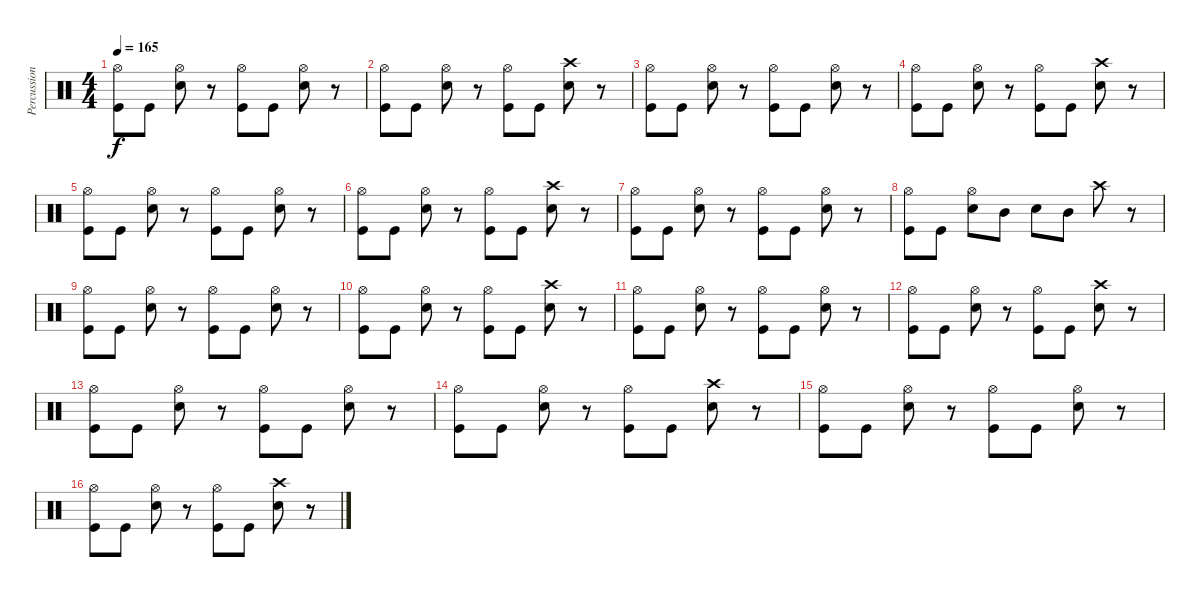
\track ("Percussion" "Percussion") {instrument percussion}
\staff {score}
\articulation defaults
\ts (4 4)
\tempo 165
\clef neutral
\ks c
("Hi-Hat (open)" "Kick (hit)").8{dy f} "Kick (hit)".8 ("Hi-Hat (open)" "Snare (hit) 2").8 r.8 ("Hi-Hat (open)" "Kick (hit)").8 "Kick (hit)".8 ("Hi-Hat (open)" "Snare (hit) 2").8 r.8 |
("Hi-Hat (open)" "Kick (hit)").8 "Kick (hit)".8 ("Hi-Hat (open)" "Snare (hit) 2").8 r.8 ("Hi-Hat (open)" "Kick (hit)").8 "Kick (hit)".8 ("Crash high (hit)" "Snare (hit) 2").8 r.8 |
("Hi-Hat (open)" "Kick (hit)").8 "Kick (hit)".8 ("Hi-Hat (open)" "Snare (hit) 2").8 r.8 ("Hi-Hat (open)" "Kick (hit)").8 "Kick (hit)".8 ("Hi-Hat (open)" "Snare (hit) 2").8 r.8 |
("Hi-Hat (open)" "Kick (hit)").8 "Kick (hit)".8 ("Hi-Hat (open)" "Snare (hit) 2").8 r.8 ("Hi-Hat (open)" "Kick (hit)").8 "Kick (hit)".8 ("Crash high (hit)" "Snare (hit) 2").8 r.8 |
("Hi-Hat (open)" "Kick (hit)").8 "Kick (hit)".8 ("Hi-Hat (open)" "Snare (hit) 2").8 r.8 ("Hi-Hat (open)" "Kick (hit)").8 "Kick (hit)".8 ("Hi-Hat (open)" "Snare (hit) 2").8 r.8 |
("Hi-Hat (open)" "Kick (hit)").8 "Kick (hit)".8 ("Hi-Hat (open)" "Snare (hit) 2").8 r.8 ("Hi-Hat (open)" "Kick (hit)").8 "Kick (hit)".8 ("Crash high (hit)" "Snare (hit) 2").8 r.8 |
("Hi-Hat (open)" "Kick (hit)").8 "Kick (hit)".8 ("Hi-Hat (open)" "Snare (hit) 2").8 r.8 ("Hi-Hat (open)" "Kick (hit)").8 "Kick (hit)".8 ("Hi-Hat (open)" "Snare (hit) 2").8 r.8 |
("Hi-Hat (open)" "Kick (hit)").8 "Kick (hit)".8 ("Hi-Hat (open)" "Snare (hit) 2").8 "Mid Tom (hit)".8 "Snare (hit) 2".8 "Mid Tom (hit)".8 "Crash high (hit)".8 r.8 |
("Hi-Hat (open)" "Kick (hit)").8 "Kick (hit)".8 ("Hi-Hat (open)" "Snare (hit) 2").8 r.8 ("Hi-Hat (open)" "Kick (hit)").8 "Kick (hit)".8 ("Hi-Hat (open)" "Snare (hit) 2").8 r.8 |
("Hi-Hat (open)" "Kick (hit)").8 "Kick (hit)".8 ("Hi-Hat (open)" "Snare (hit) 2").8 r.8 ("Hi-Hat (open)" "Kick (hit)").8 "Kick (hit)".8 ("Crash high (hit)" "Snare (hit) 2").8 r.8 |
("Hi-Hat (open)" "Kick (hit)").8 "Kick (hit)".8 ("Hi-Hat (open)" "Snare (hit) 2").8 r.8 ("Hi-Hat (open)" "Kick (hit)").8 "Kick (hit)".8 ("Hi-Hat (open)" "Snare (hit) 2").8 r.8 |
("Hi-Hat (open)" "Kick (hit)").8 "Kick (hit)".8 ("Hi-Hat (open)" "Snare (hit) 2").8 r.8 ("Hi-Hat (open)" "Kick (hit)").8 "Kick (hit)".8 ("Crash high (hit)" "Snare (hit) 2").8 r.8 |
("Hi-Hat (open)" "Kick (hit)").8 "Kick (hit)".8 ("Hi-Hat (open)" "Snare (hit) 2").8 r.8 ("Hi-Hat (open)" "Kick (hit)").8 "Kick (hit)".8 ("Hi-Hat (open)" "Snare (hit) 2").8 r.8 |
("Hi-Hat (open)" "Kick (hit)").8 "Kick (hit)".8 ("Hi-Hat (open)" "Snare (hit) 2").8 r.8 ("Hi-Hat (open)" "Kick (hit)").8 "Kick (hit)".8 ("Crash high (hit)" "Snare (hit) 2").8 r.8 |
("Hi-Hat (open)" "Kick (hit)").8 "Kick (hit)".8 ("Hi-Hat (open)" "Snare (hit) 2").8 r.8 ("Hi-Hat (open)" "Kick (hit)").8 "Kick (hit)".8 ("Hi-Hat (open)" "Snare (hit) 2").8 r.8 |
("Hi-Hat (open)" "Kick (hit)").8 "Kick (hit)".8 ("Hi-Hat (open)" "Snare (hit) 2").8 r.8 ("Hi-Hat (open)" "Kick (hit)").8 "Kick (hit)".8 ("Crash high (hit)" "Snare (hit) 2").8 r.8
